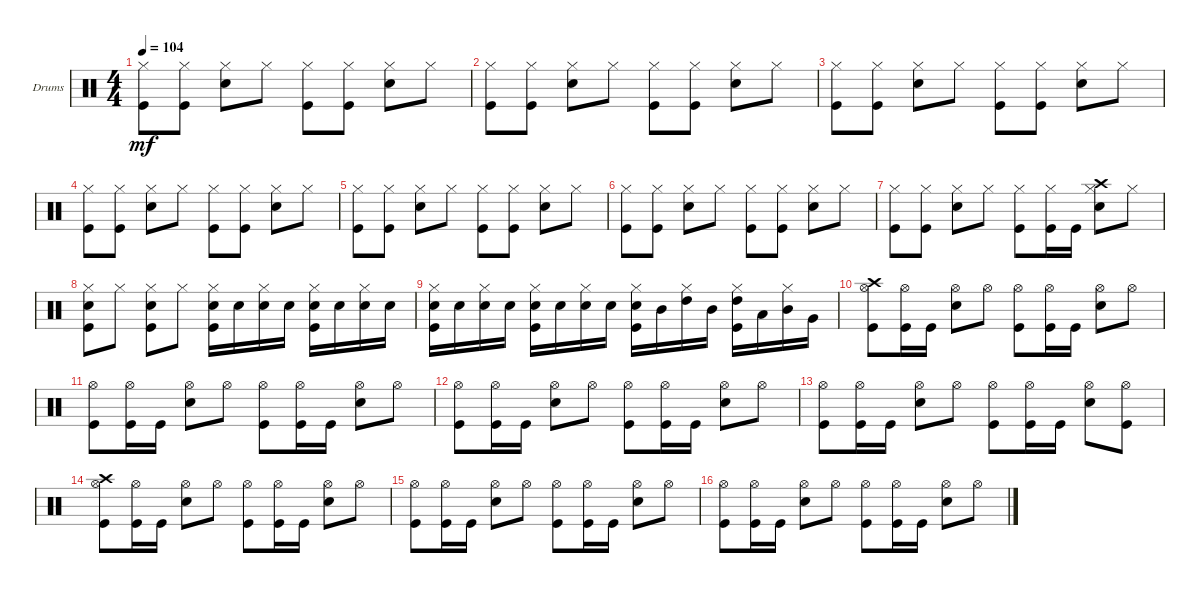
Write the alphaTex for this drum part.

\defaultSystemsLayout 4
\bracketExtendMode groupsimilarinstruments
\firstSystemTrackNameOrientation horizontal
\otherSystemsTrackNameOrientation horizontal
\track ("Drum" "Drums") {instrument percussion}
\staff {score}
\articulation defaults
\ts (4 4)
\tempo 104
\clef neutral
\ks c
("Kick (hit)" "Hi-Hat (closed)").8{dy mf} ("Hi-Hat (closed)" "Kick (hit)").8 ("Snare (hit) 2" "Hi-Hat (closed)").8 "Hi-Hat (closed)".8 ("Kick (hit)" "Hi-Hat (closed)").8 ("Kick (hit)" "Hi-Hat (closed)").8 ("Hi-Hat (closed)" "Snare (hit) 2").8 "Hi-Hat (closed)".8 |
("Kick (hit)" "Hi-Hat (closed)").8 ("Hi-Hat (closed)" "Kick (hit)").8 ("Snare (hit) 2" "Hi-Hat (closed)").8 "Hi-Hat (closed)".8 ("Kick (hit)" "Hi-Hat (closed)").8 ("Hi-Hat (closed)" "Kick (hit)").8 ("Snare (hit) 2" "Hi-Hat (closed)").8 "Hi-Hat (closed)".8 |
("Kick (hit)" "Hi-Hat (closed)").8 ("Hi-Hat (closed)" "Kick (hit)").8 ("Snare (hit) 2" "Hi-Hat (closed)").8 "Hi-Hat (closed)".8 ("Kick (hit)" "Hi-Hat (closed)").8 ("Kick (hit)" "Hi-Hat (closed)").8 ("Hi-Hat (closed)" "Snare (hit) 2").8 "Hi-Hat (closed)".8 |
("Hi-Hat (closed)" "Kick (hit)").8 ("Kick (hit)" "Hi-Hat (closed)").8 ("Hi-Hat (closed)" "Snare (hit) 2").8 "Hi-Hat (closed)".8 ("Kick (hit)" "Hi-Hat (closed)").8 ("Hi-Hat (closed)" "Kick (hit)").8 ("Hi-Hat (closed)" "Snare (hit) 2").8 "Hi-Hat (closed)".8 |
("Kick (hit)" "Hi-Hat (closed)").8 ("Hi-Hat (closed)" "Kick (hit)").8 ("Snare (hit) 2" "Hi-Hat (closed)").8 "Hi-Hat (closed)".8 ("Kick (hit)" "Hi-Hat (closed)").8 ("Hi-Hat (closed)" "Kick (hit)").8 ("Snare (hit) 2" "Hi-Hat (closed)").8 "Hi-Hat (closed)".8 |
("Kick (hit)" "Hi-Hat (closed)").8 ("Hi-Hat (closed)" "Kick (hit)").8 ("Snare (hit) 2" "Hi-Hat (closed)").8 "Hi-Hat (closed)".8 ("Kick (hit)" "Hi-Hat (closed)").8 ("Hi-Hat (closed)" "Kick (hit)").8 ("Hi-Hat (closed)" "Snare (hit) 2").8 "Hi-Hat (closed)".8 |
("Hi-Hat (closed)" "Kick (hit)").8 ("Kick (hit)" "Hi-Hat (closed)").8 ("Hi-Hat (closed)" "Snare (hit) 2").8 "Hi-Hat (closed)".8 ("Hi-Hat (closed)" "Kick (hit)").8 ("Kick (hit)" "Hi-Hat (closed)").16 "Kick (hit)".16 ("Snare (hit) 2" "Hi-Hat (closed)" "Crash high (hit)").8 "Hi-Hat (closed)".8 |
("Snare (hit) 2" "Kick (hit)" "Hi-Hat (closed)").8 "Hi-Hat (closed)".8 ("Kick (hit)" "Snare (hit) 2" "Hi-Hat (closed)").8 "Hi-Hat (closed)".8 ("Kick (hit)" "Snare (hit) 2" "Hi-Hat (closed)").16 "Snare (hit) 2".16 ("Hi-Hat (closed)" "Snare (hit) 2").16 "Snare (hit) 2".16 ("Kick (hit)" "Snare (hit) 2" "Hi-Hat (closed)").16 "Snare (hit) 2".16 ("Hi-Hat (closed)" "Snare (hit) 2").16 "Snare (hit) 2".16 |
("Kick (hit)" "Hi-Hat (closed)" "Snare (hit) 2").16 "Snare (hit) 2".16 ("Snare (hit) 2" "Hi-Hat (closed)").16 "Snare (hit) 2".16 ("Snare (hit) 2" "Kick (hit)" "Hi-Hat (closed)").16 "Snare (hit) 2".16 ("Snare (hit) 2" "Hi-Hat (closed)").16 "Snare (hit) 2".16 ("Kick (hit)" "Snare (hit) 2" "Hi-Hat (closed)").16 "Mid Tom (hit)".16 ("High Tom (hit)" "Hi-Hat (closed)").16 "Mid Tom (hit)".16 ("Hi-Hat (closed)" "Kick (hit)" "High Tom (hit)").16 "Low Tom (hit)".16 ("Mid Tom (hit)" "Hi-Hat (closed)").16 "Very Low Tom (hit)".16 |
("Crash high (hit)" "Kick (hit)" "Hi-Hat (open)").8 ("Hi-Hat (open)" "Kick (hit)").16 "Kick (hit)".16 ("Hi-Hat (open)" "Snare (hit) 2").8 "Hi-Hat (open)".8 ("Hi-Hat (open)" "Kick (hit)").8 ("Kick (hit)" "Hi-Hat (open)").16 "Kick (hit)".16 ("Snare (hit) 2" "Hi-Hat (open)").8 "Hi-Hat (open)".8 |
("Kick (hit)" "Hi-Hat (open)").8 ("Hi-Hat (open)" "Kick (hit)").16 "Kick (hit)".16 ("Hi-Hat (open)" "Snare (hit) 2").8 "Hi-Hat (open)".8 ("Hi-Hat (open)" "Kick (hit)").8 ("Kick (hit)" "Hi-Hat (open)").16 "Kick (hit)".16 ("Snare (hit) 2" "Hi-Hat (open)").8 "Hi-Hat (open)".8 |
("Kick (hit)" "Hi-Hat (open)").8 ("Hi-Hat (open)" "Kick (hit)").16 "Kick (hit)".16 ("Snare (hit) 2" "Hi-Hat (open)").8 "Hi-Hat (open)".8 ("Kick (hit)" "Hi-Hat (open)").8 ("Hi-Hat (open)" "Kick (hit)").16 "Kick (hit)".16 ("Snare (hit) 2" "Hi-Hat (open)").8 "Hi-Hat (open)".8 |
("Hi-Hat (open)" "Kick (hit)").8 ("Hi-Hat (open)" "Kick (hit)").16 "Kick (hit)".16 ("Hi-Hat (open)" "Snare (hit) 2").8 "Hi-Hat (open)".8 ("Kick (hit)" "Hi-Hat (open)").8 ("Hi-Hat (open)" "Kick (hit)").16 "Kick (hit)".16 ("Snare (hit) 2" "Hi-Hat (open)").8 ("Hi-Hat (open)" "Kick (hit)").8 |
("Crash high (hit)" "Kick (hit)" "Hi-Hat (open)").8 ("Kick (hit)" "Hi-Hat (open)").16 "Kick (hit)".16 ("Snare (hit) 2" "Hi-Hat (open)").8 "Hi-Hat (open)".8 ("Kick (hit)" "Hi-Hat (open)").8 ("Kick (hit)" "Hi-Hat (open)").16 "Kick (hit)".16 ("Snare (hit) 2" "Hi-Hat (open)").8 "Hi-Hat (open)".8 |
("Kick (hit)" "Hi-Hat (open)").8 ("Hi-Hat (open)" "Kick (hit)").16 "Kick (hit)".16 ("Snare (hit) 2" "Hi-Hat (open)").8 "Hi-Hat (open)".8 ("Kick (hit)" "Hi-Hat (open)").8 ("Kick (hit)" "Hi-Hat (open)").16 "Kick (hit)".16 ("Hi-Hat (open)" "Snare (hit) 2").8 "Hi-Hat (open)".8 |
("Kick (hit)" "Hi-Hat (open)").8 ("Hi-Hat (open)" "Kick (hit)").16 "Kick (hit)".16 ("Hi-Hat (open)" "Snare (hit) 2").8 "Hi-Hat (open)".8 ("Hi-Hat (open)" "Kick (hit)").8 ("Kick (hit)" "Hi-Hat (open)").16 "Kick (hit)".16 ("Snare (hit) 2" "Hi-Hat (open)").8 "Hi-Hat (open)".8
